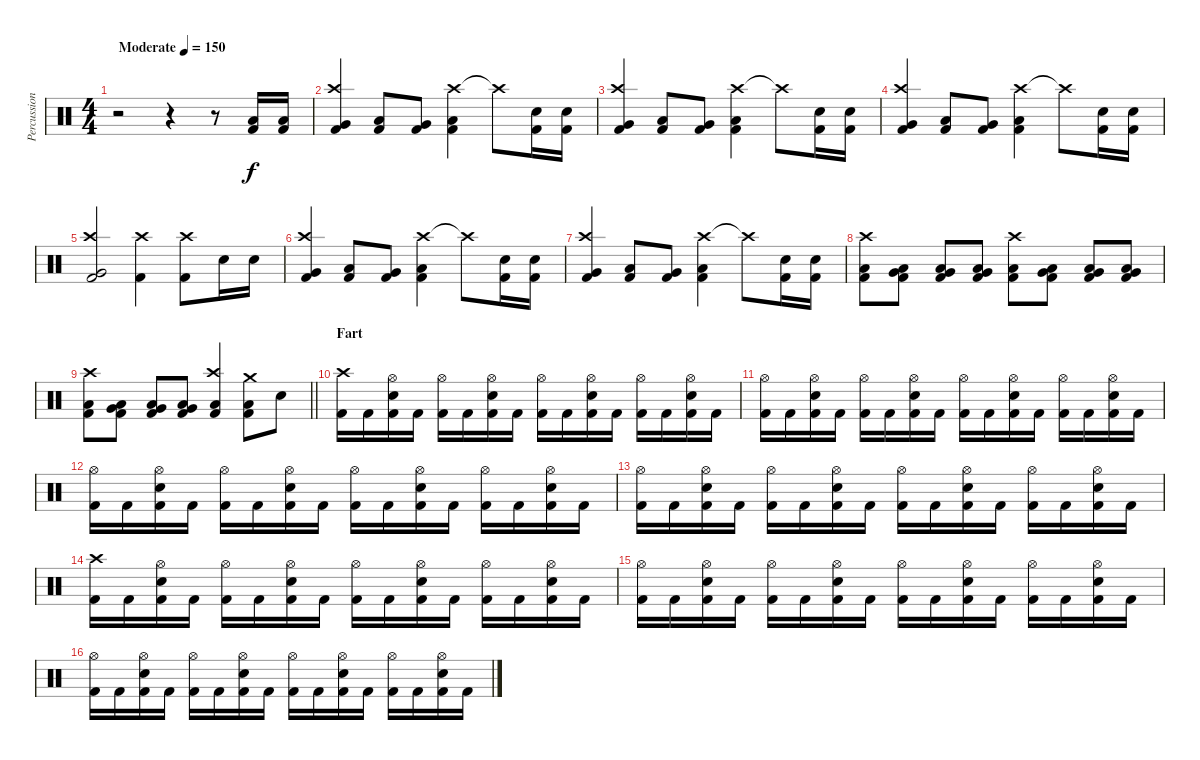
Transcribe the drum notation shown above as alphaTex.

\track ("Percussion" "Percussion") {instrument percussion}
\staff {score}
\articulation defaults
\ts (4 4)
\tempo (150 "Moderate")
\clef neutral
\ks c
r.2{dy f} r.4 r.8 ("Low Floor Tom (hit)" "Kick (hit) 2").16 ("Low Floor Tom (hit)" "Kick (hit) 2").16 |
("Crash high (hit)" "Very Low Tom (hit)" "Kick (hit) 2").4 ("Low Tom (hit)" "Kick (hit) 2").8 ("Very Low Tom (hit)" "Kick (hit) 2").8 ("Crash high (hit)" "Low Floor Tom (hit)" "Kick (hit) 2").4 "Crash high (hit)"{t}.8 ("Snare (hit) 2" "Kick (hit) 2").16 ("Snare (hit) 2" "Kick (hit) 2").16 |
("Crash high (hit)" "Very Low Tom (hit)" "Kick (hit) 2").4 ("Low Tom (hit)" "Kick (hit) 2").8 ("Very Low Tom (hit)" "Kick (hit) 2").8 ("Crash high (hit)" "Low Floor Tom (hit)" "Kick (hit) 2").4 "Crash high (hit)"{t}.8 ("Snare (hit) 2" "Kick (hit) 2").16 ("Snare (hit) 2" "Kick (hit) 2").16 |
("Crash high (hit)" "Very Low Tom (hit)" "Kick (hit) 2").4 ("Low Tom (hit)" "Kick (hit) 2").8 ("Very Low Tom (hit)" "Kick (hit) 2").8 ("Crash high (hit)" "Low Floor Tom (hit)" "Kick (hit) 2").4 "Crash high (hit)"{t}.8 ("Snare (hit) 2" "Kick (hit) 2").16 ("Snare (hit) 2" "Kick (hit) 2").16 |
("Crash high (hit)" "Very Low Tom (hit)" "Kick (hit) 2").2 ("Crash high (hit)" "Kick (hit) 2").4 ("Crash high (hit)" "Kick (hit) 2").8 "Snare (hit) 2".16 "Snare (hit) 2".16 |
("Crash high (hit)" "Very Low Tom (hit)" "Kick (hit) 2").4 ("Low Tom (hit)" "Kick (hit) 2").8 ("Very Low Tom (hit)" "Kick (hit) 2").8 ("Crash high (hit)" "Low Floor Tom (hit)" "Kick (hit) 2").4 "Crash high (hit)"{t}.8 ("Snare (hit) 2" "Kick (hit) 2").16 ("Snare (hit) 2" "Kick (hit) 2").16 |
("Crash high (hit)" "Very Low Tom (hit)" "Kick (hit) 2").4 ("Low Tom (hit)" "Kick (hit) 2").8 ("Very Low Tom (hit)" "Kick (hit) 2").8 ("Crash high (hit)" "Low Floor Tom (hit)" "Kick (hit) 2").4 "Crash high (hit)"{t}.8 ("Snare (hit) 2" "Kick (hit) 2").16 ("Snare (hit) 2" "Kick (hit) 2").16 |
("Crash high (hit)" "Low Floor Tom (hit)" "Kick (hit) 2").8 ("Very Low Tom (hit)" "Low Floor Tom (hit)" "Kick (hit) 2").8 ("Very Low Tom (hit)" "Low Floor Tom (hit)" "Kick (hit) 2").8 ("Very Low Tom (hit)" "Low Floor Tom (hit)" "Kick (hit) 2").8 ("Crash high (hit)" "Low Floor Tom (hit)" "Kick (hit) 2").8 ("Very Low Tom (hit)" "Low Floor Tom (hit)" "Kick (hit) 2").8 ("Very Low Tom (hit)" "Low Floor Tom (hit)" "Kick (hit) 2").8 ("Very Low Tom (hit)" "Low Floor Tom (hit)" "Kick (hit) 2").8 |
\barLineRight lightlight
("Crash high (hit)" "Low Floor Tom (hit)" "Kick (hit) 2").8 ("Very Low Tom (hit)" "Low Floor Tom (hit)" "Kick (hit) 2").8 ("Very Low Tom (hit)" "Low Floor Tom (hit)" "Kick (hit) 2").8 ("Very Low Tom (hit)" "Low Floor Tom (hit)" "Kick (hit) 2").8 ("Crash high (hit)" "Low Tom (hit)" "Kick (hit) 2").4 ("Crash medium (hit)" "Low Floor Tom (hit)" "Kick (hit) 2").8 "Snare (hit) 2".8 |
\section ("" "Fart")
("Crash high (hit)" "Kick (hit) 2").16 "Kick (hit) 2".16 ("Hi-Hat (open)" "Snare (hit) 2" "Kick (hit) 2").16 "Kick (hit) 2".16 ("Hi-Hat (open)" "Kick (hit) 2").16 "Kick (hit) 2".16 ("Hi-Hat (open)" "Snare (hit) 2" "Kick (hit) 2").16 "Kick (hit) 2".16 ("Hi-Hat (open)" "Kick (hit) 2").16 "Kick (hit) 2".16 ("Hi-Hat (open)" "Snare (hit) 2" "Kick (hit) 2").16 "Kick (hit) 2".16 ("Hi-Hat (open)" "Kick (hit) 2").16 "Kick (hit) 2".16 ("Hi-Hat (open)" "Snare (hit) 2" "Kick (hit) 2").16 "Kick (hit) 2".16 |
("Hi-Hat (open)" "Kick (hit) 2").16 "Kick (hit) 2".16 ("Hi-Hat (open)" "Snare (hit) 2" "Kick (hit) 2").16 "Kick (hit) 2".16 ("Hi-Hat (open)" "Kick (hit) 2").16 "Kick (hit) 2".16 ("Hi-Hat (open)" "Snare (hit) 2" "Kick (hit) 2").16 "Kick (hit) 2".16 ("Hi-Hat (open)" "Kick (hit) 2").16 "Kick (hit) 2".16 ("Hi-Hat (open)" "Snare (hit) 2" "Kick (hit) 2").16 "Kick (hit) 2".16 ("Hi-Hat (open)" "Kick (hit) 2").16 "Kick (hit) 2".16 ("Hi-Hat (open)" "Snare (hit) 2" "Kick (hit) 2").16 "Kick (hit) 2".16 |
("Hi-Hat (open)" "Kick (hit) 2").16 "Kick (hit) 2".16 ("Hi-Hat (open)" "Snare (hit) 2" "Kick (hit) 2").16 "Kick (hit) 2".16 ("Hi-Hat (open)" "Kick (hit) 2").16 "Kick (hit) 2".16 ("Hi-Hat (open)" "Snare (hit) 2" "Kick (hit) 2").16 "Kick (hit) 2".16 ("Hi-Hat (open)" "Kick (hit) 2").16 "Kick (hit) 2".16 ("Hi-Hat (open)" "Snare (hit) 2" "Kick (hit) 2").16 "Kick (hit) 2".16 ("Hi-Hat (open)" "Kick (hit) 2").16 "Kick (hit) 2".16 ("Hi-Hat (open)" "Snare (hit) 2" "Kick (hit) 2").16 "Kick (hit) 2".16 |
("Hi-Hat (open)" "Kick (hit) 2").16 "Kick (hit) 2".16 ("Hi-Hat (open)" "Snare (hit) 2" "Kick (hit) 2").16 "Kick (hit) 2".16 ("Hi-Hat (open)" "Kick (hit) 2").16 "Kick (hit) 2".16 ("Hi-Hat (open)" "Snare (hit) 2" "Kick (hit) 2").16 "Kick (hit) 2".16 ("Hi-Hat (open)" "Kick (hit) 2").16 "Kick (hit) 2".16 ("Hi-Hat (open)" "Snare (hit) 2" "Kick (hit) 2").16 "Kick (hit) 2".16 ("Hi-Hat (open)" "Kick (hit) 2").16 "Kick (hit) 2".16 ("Hi-Hat (open)" "Snare (hit) 2" "Kick (hit) 2").16 "Kick (hit) 2".16 |
("Crash high (hit)" "Kick (hit) 2").16 "Kick (hit) 2".16 ("Hi-Hat (open)" "Snare (hit) 2" "Kick (hit) 2").16 "Kick (hit) 2".16 ("Hi-Hat (open)" "Kick (hit) 2").16 "Kick (hit) 2".16 ("Hi-Hat (open)" "Snare (hit) 2" "Kick (hit) 2").16 "Kick (hit) 2".16 ("Hi-Hat (open)" "Kick (hit) 2").16 "Kick (hit) 2".16 ("Hi-Hat (open)" "Snare (hit) 2" "Kick (hit) 2").16 "Kick (hit) 2".16 ("Hi-Hat (open)" "Kick (hit) 2").16 "Kick (hit) 2".16 ("Hi-Hat (open)" "Snare (hit) 2" "Kick (hit) 2").16 "Kick (hit) 2".16 |
("Hi-Hat (open)" "Kick (hit) 2").16 "Kick (hit) 2".16 ("Hi-Hat (open)" "Snare (hit) 2" "Kick (hit) 2").16 "Kick (hit) 2".16 ("Hi-Hat (open)" "Kick (hit) 2").16 "Kick (hit) 2".16 ("Hi-Hat (open)" "Snare (hit) 2" "Kick (hit) 2").16 "Kick (hit) 2".16 ("Hi-Hat (open)" "Kick (hit) 2").16 "Kick (hit) 2".16 ("Hi-Hat (open)" "Snare (hit) 2" "Kick (hit) 2").16 "Kick (hit) 2".16 ("Hi-Hat (open)" "Kick (hit) 2").16 "Kick (hit) 2".16 ("Hi-Hat (open)" "Snare (hit) 2" "Kick (hit) 2").16 "Kick (hit) 2".16 |
("Hi-Hat (open)" "Kick (hit) 2").16 "Kick (hit) 2".16 ("Hi-Hat (open)" "Snare (hit) 2" "Kick (hit) 2").16 "Kick (hit) 2".16 ("Hi-Hat (open)" "Kick (hit) 2").16 "Kick (hit) 2".16 ("Hi-Hat (open)" "Snare (hit) 2" "Kick (hit) 2").16 "Kick (hit) 2".16 ("Hi-Hat (open)" "Kick (hit) 2").16 "Kick (hit) 2".16 ("Hi-Hat (open)" "Snare (hit) 2" "Kick (hit) 2").16 "Kick (hit) 2".16 ("Hi-Hat (open)" "Kick (hit) 2").16 "Kick (hit) 2".16 ("Hi-Hat (open)" "Snare (hit) 2" "Kick (hit) 2").16 "Kick (hit) 2".16
